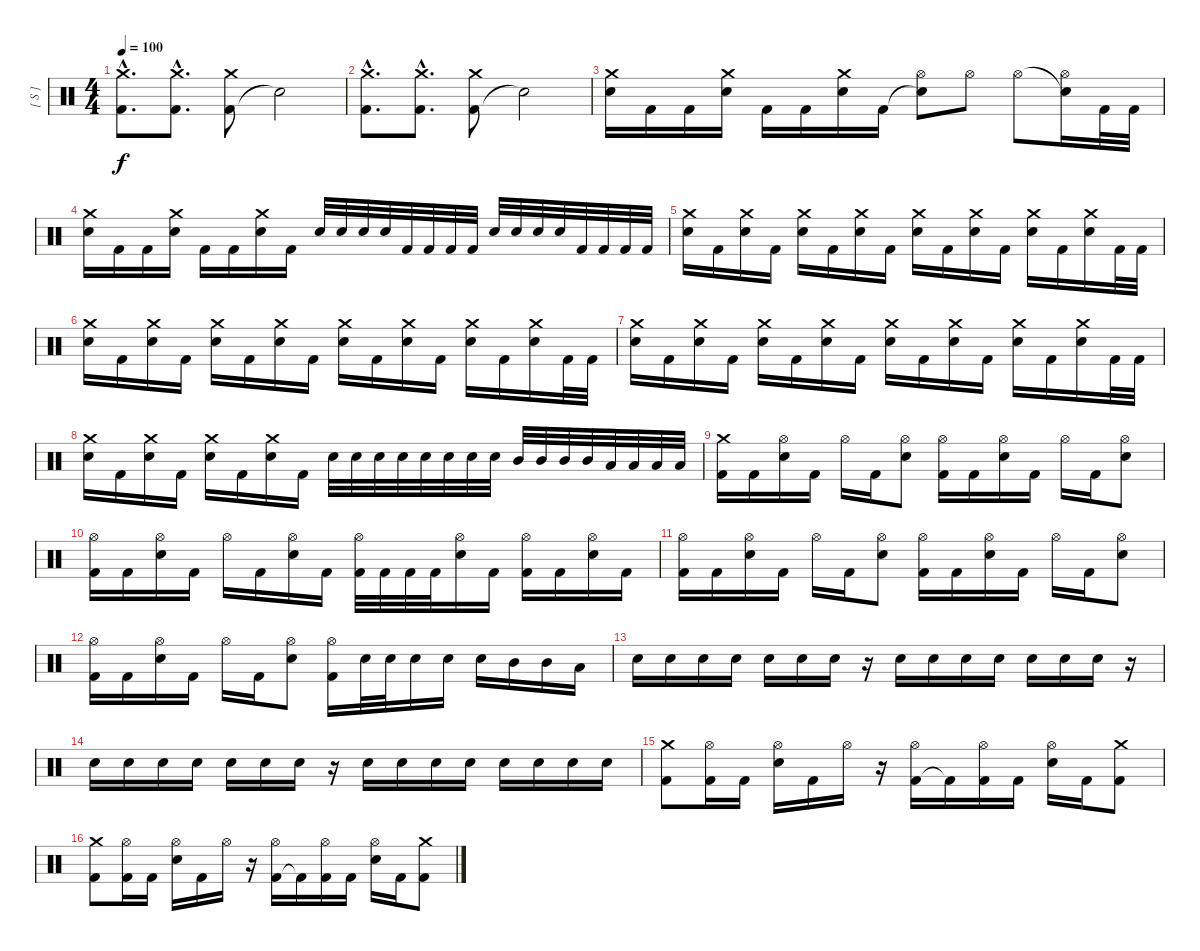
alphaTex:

\track ("[ S ]" "[ S ]") {instrument percussion}
\staff {score}
\articulation defaults
\ts (4 4)
\tempo 100
\clef neutral
\ks c
("Kick (hit) 2"{hac} "Crash medium (hit)"{hac}).8{d dy f} ("Kick (hit) 2"{hac} "Crash medium (hit)"{hac}).8{d} ("Kick (hit) 2" "Crash medium (hit)").8 "Snare (hit)"{t}.2 |
("Kick (hit) 2"{hac} "Crash medium (hit)"{hac}).8{d} ("Kick (hit) 2"{hac} "Crash medium (hit)"{hac}).8{d} ("Kick (hit) 2" "Crash medium (hit)").8 "Snare (hit)"{t}.2 |
("Electric Snare (hit)" "Crash medium (hit)").16 "Kick (hit) 2".16 "Kick (hit) 2".16 ("Electric Snare (hit)" "Crash medium (hit)").16 "Kick (hit) 2".16 "Kick (hit) 2".16 ("Electric Snare (hit)" "Crash medium (hit)").16 "Kick (hit) 2".16 ("Snare (hit)"{t} "Hi-Hat (open)").8 "Hi-Hat (open)".8 "Hi-Hat (open)".8 ("Snare (hit)"{t} "Hi-Hat (open)").16 "Kick (hit) 2".32 "Kick (hit) 2".32 |
("Electric Snare (hit)" "Crash medium (hit)").16 "Kick (hit) 2".16 "Kick (hit) 2".16 ("Electric Snare (hit)" "Crash medium (hit)").16 "Kick (hit) 2".16 "Kick (hit) 2".16 ("Electric Snare (hit)" "Crash medium (hit)").16 "Kick (hit) 2".16 "Electric Snare (hit)".32 "Electric Snare (hit)".32 "Electric Snare (hit)".32 "Electric Snare (hit)".32 "Kick (hit) 2".32 "Kick (hit) 2".32 "Kick (hit) 2".32 "Kick (hit) 2".32 "Electric Snare (hit)".32 "Electric Snare (hit)".32 "Electric Snare (hit)".32 "Electric Snare (hit)".32 "Kick (hit) 2".32 "Kick (hit) 2".32 "Kick (hit) 2".32 "Kick (hit) 2".32 |
("Electric Snare (hit)" "Crash medium (hit)").16 "Kick (hit) 2".16 ("Electric Snare (hit)" "Crash medium (hit)").16 "Kick (hit) 2".16 ("Electric Snare (hit)" "Crash medium (hit)").16 "Kick (hit) 2".16 ("Electric Snare (hit)" "Crash medium (hit)").16 "Kick (hit) 2".16 ("Electric Snare (hit)" "Crash medium (hit)").16 "Kick (hit) 2".16 ("Electric Snare (hit)" "Crash medium (hit)").16 "Kick (hit) 2".16 ("Electric Snare (hit)" "Crash medium (hit)").16 "Kick (hit) 2".16 ("Electric Snare (hit)" "Crash medium (hit)").16 "Kick (hit) 2".32 "Kick (hit) 2".32 |
("Electric Snare (hit)" "Crash medium (hit)").16 "Kick (hit) 2".16 ("Electric Snare (hit)" "Crash medium (hit)").16 "Kick (hit) 2".16 ("Electric Snare (hit)" "Crash medium (hit)").16 "Kick (hit) 2".16 ("Electric Snare (hit)" "Crash medium (hit)").16 "Kick (hit) 2".16 ("Electric Snare (hit)" "Crash medium (hit)").16 "Kick (hit) 2".16 ("Electric Snare (hit)" "Crash medium (hit)").16 "Kick (hit) 2".16 ("Electric Snare (hit)" "Crash medium (hit)").16 "Kick (hit) 2".16 ("Electric Snare (hit)" "Crash medium (hit)").16 "Kick (hit) 2".32 "Kick (hit) 2".32 |
("Electric Snare (hit)" "Crash medium (hit)").16 "Kick (hit) 2".16 ("Electric Snare (hit)" "Crash medium (hit)").16 "Kick (hit) 2".16 ("Electric Snare (hit)" "Crash medium (hit)").16 "Kick (hit) 2".16 ("Electric Snare (hit)" "Crash medium (hit)").16 "Kick (hit) 2".16 ("Electric Snare (hit)" "Crash medium (hit)").16 "Kick (hit) 2".16 ("Electric Snare (hit)" "Crash medium (hit)").16 "Kick (hit) 2".16 ("Electric Snare (hit)" "Crash medium (hit)").16 "Kick (hit) 2".16 ("Electric Snare (hit)" "Crash medium (hit)").16 "Kick (hit) 2".32 "Kick (hit) 2".32 |
("Electric Snare (hit)" "Crash medium (hit)").16 "Kick (hit) 2".16 ("Electric Snare (hit)" "Crash medium (hit)").16 "Kick (hit) 2".16 ("Electric Snare (hit)" "Crash medium (hit)").16 "Kick (hit) 2".16 ("Electric Snare (hit)" "Crash medium (hit)").16 "Kick (hit) 2".16 "Electric Snare (hit)".32 "Electric Snare (hit)".32 "Electric Snare (hit)".32 "Electric Snare (hit)".32 "Electric Snare (hit)".32 "Electric Snare (hit)".32 "Electric Snare (hit)".32 "Electric Snare (hit)".32 "Mid Tom (hit)".32 "Mid Tom (hit)".32 "Mid Tom (hit)".32 "Mid Tom (hit)".32 "Low Tom (hit)".32 "Low Tom (hit)".32 "Low Tom (hit)".32 "Low Tom (hit)".32 |
("Kick (hit) 2" "Crash medium (hit)").16 "Kick (hit) 2".16 ("Electric Snare (hit)" "Hi-Hat (open)").16 "Kick (hit) 2".16 "Hi-Hat (open)".16 "Kick (hit) 2".16 ("Electric Snare (hit)" "Hi-Hat (open)").8 ("Kick (hit) 2" "Hi-Hat (open)").16 "Kick (hit) 2".16 ("Electric Snare (hit)" "Hi-Hat (open)").16 "Kick (hit) 2".16 "Hi-Hat (open)".16 "Kick (hit) 2".16 ("Electric Snare (hit)" "Hi-Hat (open)").8 |
("Kick (hit) 2" "Hi-Hat (open)").16 "Kick (hit) 2".16 ("Electric Snare (hit)" "Hi-Hat (open)").16 "Kick (hit) 2".16 "Hi-Hat (open)".16 "Kick (hit) 2".16 ("Electric Snare (hit)" "Hi-Hat (open)").16 "Kick (hit) 2".16 ("Kick (hit) 2" "Hi-Hat (open)").32 "Kick (hit) 2".32 "Kick (hit) 2".32 "Kick (hit) 2".32 ("Electric Snare (hit)" "Hi-Hat (open)").16 "Kick (hit) 2".16 ("Kick (hit) 2" "Hi-Hat (open)").16 "Kick (hit) 2".16 ("Electric Snare (hit)" "Hi-Hat (open)").16 "Kick (hit) 2".16 |
("Kick (hit) 2" "Hi-Hat (open)").16 "Kick (hit) 2".16 ("Electric Snare (hit)" "Hi-Hat (open)").16 "Kick (hit) 2".16 "Hi-Hat (open)".16 "Kick (hit) 2".16 ("Electric Snare (hit)" "Hi-Hat (open)").8 ("Kick (hit) 2" "Hi-Hat (open)").16 "Kick (hit) 2".16 ("Electric Snare (hit)" "Hi-Hat (open)").16 "Kick (hit) 2".16 "Hi-Hat (open)".16 "Kick (hit) 2".16 ("Electric Snare (hit)" "Hi-Hat (open)").8 |
("Kick (hit) 2" "Hi-Hat (open)").16 "Kick (hit) 2".16 ("Electric Snare (hit)" "Hi-Hat (open)").16 "Kick (hit) 2".16 "Hi-Hat (open)".16 "Kick (hit) 2".16 ("Electric Snare (hit)" "Hi-Hat (open)").8 ("Kick (hit) 2" "Hi-Hat (open)").16 "Electric Snare (hit)".32 "Electric Snare (hit)".32 "Electric Snare (hit)".16 "Electric Snare (hit)".16 "Electric Snare (hit)".16 "Mid Tom (hit)".16 "Mid Tom (hit)".16 "Low Tom (hit)".16 |
"Electric Snare (hit)".16 "Electric Snare (hit)".16 "Electric Snare (hit)".16 "Electric Snare (hit)".16 "Electric Snare (hit)".16 "Electric Snare (hit)".16 "Electric Snare (hit)".16 r.16 "Electric Snare (hit)".16 "Electric Snare (hit)".16 "Electric Snare (hit)".16 "Electric Snare (hit)".16 "Electric Snare (hit)".16 "Electric Snare (hit)".16 "Electric Snare (hit)".16 r.16 |
"Electric Snare (hit)".16 "Electric Snare (hit)".16 "Electric Snare (hit)".16 "Electric Snare (hit)".16 "Electric Snare (hit)".16 "Electric Snare (hit)".16 "Electric Snare (hit)".16 r.16 "Electric Snare (hit)".16 "Electric Snare (hit)".16 "Electric Snare (hit)".16 "Electric Snare (hit)".16 "Electric Snare (hit)".16 "Electric Snare (hit)".16 "Electric Snare (hit)".16 "Electric Snare (hit)".16 |
("Kick (hit) 2" "Crash medium (hit)").8 ("Kick (hit) 2" "Hi-Hat (open)").16 "Kick (hit) 2".16 ("Electric Snare (hit)" "Hi-Hat (open)").16 "Kick (hit) 2".16 "Hi-Hat (open)".16 r.16 ("Kick (hit) 2" "Hi-Hat (open)").16 "Kick (hit) 2"{t}.16 ("Kick (hit) 2" "Hi-Hat (open)").16 "Kick (hit) 2".16 ("Electric Snare (hit)" "Hi-Hat (open)").16 "Kick (hit) 2".16 ("Kick (hit) 2" "Crash medium (hit)").8 |
("Kick (hit) 2" "Crash medium (hit)").8 ("Kick (hit) 2" "Hi-Hat (open)").16 "Kick (hit) 2".16 ("Electric Snare (hit)" "Hi-Hat (open)").16 "Kick (hit) 2".16 "Hi-Hat (open)".16 r.16 ("Kick (hit) 2" "Hi-Hat (open)").16 "Kick (hit) 2"{t}.16 ("Kick (hit) 2" "Hi-Hat (open)").16 "Kick (hit) 2".16 ("Electric Snare (hit)" "Hi-Hat (open)").16 "Kick (hit) 2".16 ("Kick (hit) 2" "Crash medium (hit)").8
